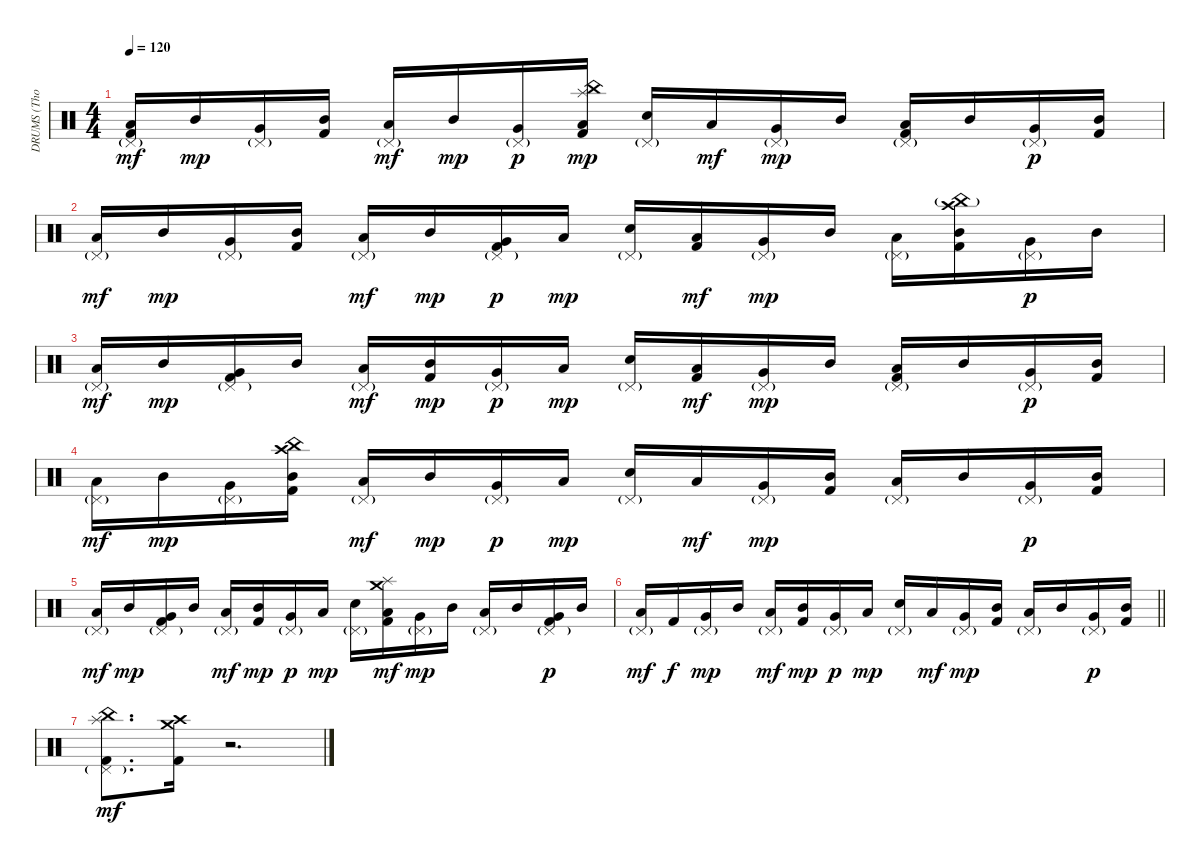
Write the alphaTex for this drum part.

\track ("DRUMS (Thomas Haake)" "DRUMS (Tho") {instrument percussion}
\staff {score}
\articulation defaults
\ts (4 4)
\tempo 120
\clef neutral
\ks c
("Pedal Hi-Hat (hit)"{g} "Low Floor Tom (hit)" "Kick (hit) 2").16{dy mf} "Mid Tom (hit)".16{dy mp} ("Pedal Hi-Hat (hit)"{g} "Very Low Tom (hit)").16 ("Mid Tom (hit)" "Kick (hit) 2").16 ("Pedal Hi-Hat (hit)"{g} "Low Floor Tom (hit)").16{dy mf} "Mid Tom (hit)".16{dy mp} ("Pedal Hi-Hat (hit)"{g} "Very Low Tom (hit)").16{dy p} ("China (hit)" "Splash (hit)" "Low Tom (hit)" "Kick (hit) 2").16{dy mp} ("Pedal Hi-Hat (hit)"{g} "Electric Snare (hit)").16 "Low Tom (hit)".16{dy mf} ("Pedal Hi-Hat (hit)"{g} "Very Low Tom (hit)").16{dy mp} "Mid Tom (hit)".16 ("Pedal Hi-Hat (hit)"{g} "Low Floor Tom (hit)" "Kick (hit) 2").16 "Mid Tom (hit)".16 ("Pedal Hi-Hat (hit)"{g} "Very Low Tom (hit)").16{dy p} ("Mid Tom (hit)" "Kick (hit) 2").16 |
("Pedal Hi-Hat (hit)"{g} "Low Floor Tom (hit)").16{dy mf} "Mid Tom (hit)".16{dy mp} ("Pedal Hi-Hat (hit)"{g} "Very Low Tom (hit)").16 ("Mid Tom (hit)" "Kick (hit) 2").16 ("Pedal Hi-Hat (hit)"{g} "Low Floor Tom (hit)").16{dy mf} "Mid Tom (hit)".16{dy mp} ("Pedal Hi-Hat (hit)"{g} "Very Low Tom (hit)" "Kick (hit) 2").16{dy p} "Low Tom (hit)".16{dy mp} ("Pedal Hi-Hat (hit)"{g} "Electric Snare (hit)").16 ("Low Tom (hit)" "Kick (hit) 2").16{dy mf} ("Pedal Hi-Hat (hit)"{g} "Very Low Tom (hit)").16{dy mp} "Mid Tom (hit)".16 ("Pedal Hi-Hat (hit)"{g} "Low Floor Tom (hit)").16 ("China (hit)"{g} "Crash high (hit)" "Mid Tom (hit)" "Kick (hit) 2").16 ("Pedal Hi-Hat (hit)"{g} "Very Low Tom (hit)").16{dy p} "Mid Tom (hit)".16 |
("Pedal Hi-Hat (hit)"{g} "Low Floor Tom (hit)").16{dy mf} "Mid Tom (hit)".16{dy mp} ("Pedal Hi-Hat (hit)"{g} "Very Low Tom (hit)" "Kick (hit) 2").16 "Mid Tom (hit)".16 ("Pedal Hi-Hat (hit)"{g} "Low Floor Tom (hit)").16{dy mf} ("Mid Tom (hit)" "Kick (hit) 2").16{dy mp} ("Pedal Hi-Hat (hit)"{g} "Very Low Tom (hit)").16{dy p} "Low Tom (hit)".16{dy mp} ("Pedal Hi-Hat (hit)"{g} "Electric Snare (hit)").16 ("Low Tom (hit)" "Kick (hit) 2").16{dy mf} ("Pedal Hi-Hat (hit)"{g} "Very Low Tom (hit)").16{dy mp} "Mid Tom (hit)".16 ("Pedal Hi-Hat (hit)"{g} "Low Floor Tom (hit)" "Kick (hit) 2").16 "Mid Tom (hit)".16 ("Pedal Hi-Hat (hit)"{g} "Very Low Tom (hit)").16{dy p} ("Mid Tom (hit)" "Kick (hit) 2").16 |
("Pedal Hi-Hat (hit)"{g} "Low Floor Tom (hit)").16{dy mf} "Mid Tom (hit)".16{dy mp} ("Pedal Hi-Hat (hit)"{g} "Very Low Tom (hit)").16 ("China (hit)" "Crash high (hit)" "Mid Tom (hit)" "Kick (hit) 2").16 ("Pedal Hi-Hat (hit)"{g} "Low Floor Tom (hit)").16{dy mf} "Mid Tom (hit)".16{dy mp} ("Pedal Hi-Hat (hit)"{g} "Very Low Tom (hit)").16{dy p} "Low Tom (hit)".16{dy mp} ("Pedal Hi-Hat (hit)"{g} "Electric Snare (hit)").16 "Low Tom (hit)".16{dy mf} ("Pedal Hi-Hat (hit)"{g} "Very Low Tom (hit)").16{dy mp} ("Mid Tom (hit)" "Kick (hit) 2").16 ("Pedal Hi-Hat (hit)"{g} "Low Floor Tom (hit)").16 "Mid Tom (hit)".16 ("Pedal Hi-Hat (hit)"{g} "Very Low Tom (hit)").16{dy p} ("Mid Tom (hit)" "Kick (hit) 2").16 |
("Pedal Hi-Hat (hit)"{g} "Low Floor Tom (hit)").16{dy mf} "Mid Tom (hit)".16{dy mp} ("Pedal Hi-Hat (hit)"{g} "Very Low Tom (hit)" "Kick (hit) 2").16 "Mid Tom (hit)".16 ("Pedal Hi-Hat (hit)"{g} "Low Floor Tom (hit)").16{dy mf} ("Mid Tom (hit)" "Kick (hit) 2").16{dy mp} ("Pedal Hi-Hat (hit)"{g} "Very Low Tom (hit)").16{dy p} "Low Tom (hit)".16{dy mp} ("Pedal Hi-Hat (hit)"{g} "Electric Snare (hit)").16 ("Crash medium (hit)" "Splash (hit)" "Low Tom (hit)" "Kick (hit) 2").16{dy mf} ("Pedal Hi-Hat (hit)"{g} "Very Low Tom (hit)").16{dy mp} "Mid Tom (hit)".16 ("Pedal Hi-Hat (hit)"{g} "Low Floor Tom (hit)").16 "Mid Tom (hit)".16 ("Pedal Hi-Hat (hit)"{g} "Very Low Tom (hit)" "Kick (hit) 2").16{dy p} "Mid Tom (hit)".16 |
\barLineRight lightlight
("Pedal Hi-Hat (hit)"{g} "Low Floor Tom (hit)").16{dy mf} "Kick (hit) 2".16{dy f} ("Pedal Hi-Hat (hit)"{g} "Very Low Tom (hit)").16{dy mp} "Mid Tom (hit)".16 ("Pedal Hi-Hat (hit)"{g} "Low Floor Tom (hit)").16{dy mf} ("Mid Tom (hit)" "Kick (hit) 2").16{dy mp} ("Pedal Hi-Hat (hit)"{g} "Very Low Tom (hit)").16{dy p} "Low Tom (hit)".16{dy mp} ("Pedal Hi-Hat (hit)"{g} "Electric Snare (hit)").16 "Low Tom (hit)".16{dy mf} ("Pedal Hi-Hat (hit)"{g} "Very Low Tom (hit)").16{dy mp} ("Mid Tom (hit)" "Kick (hit) 2").16 ("Pedal Hi-Hat (hit)"{g} "Low Floor Tom (hit)").16 "Mid Tom (hit)".16 ("Pedal Hi-Hat (hit)"{g} "Very Low Tom (hit)").16{dy p} ("Mid Tom (hit)" "Kick (hit) 2").16 |
("Pedal Hi-Hat (hit)"{g} "Splash (hit)" "China (hit)" "Kick (hit) 2").8{d dy mf} ("Crash medium (hit)" "Crash high (hit)" "Kick (hit) 2").16 r.2{d}
